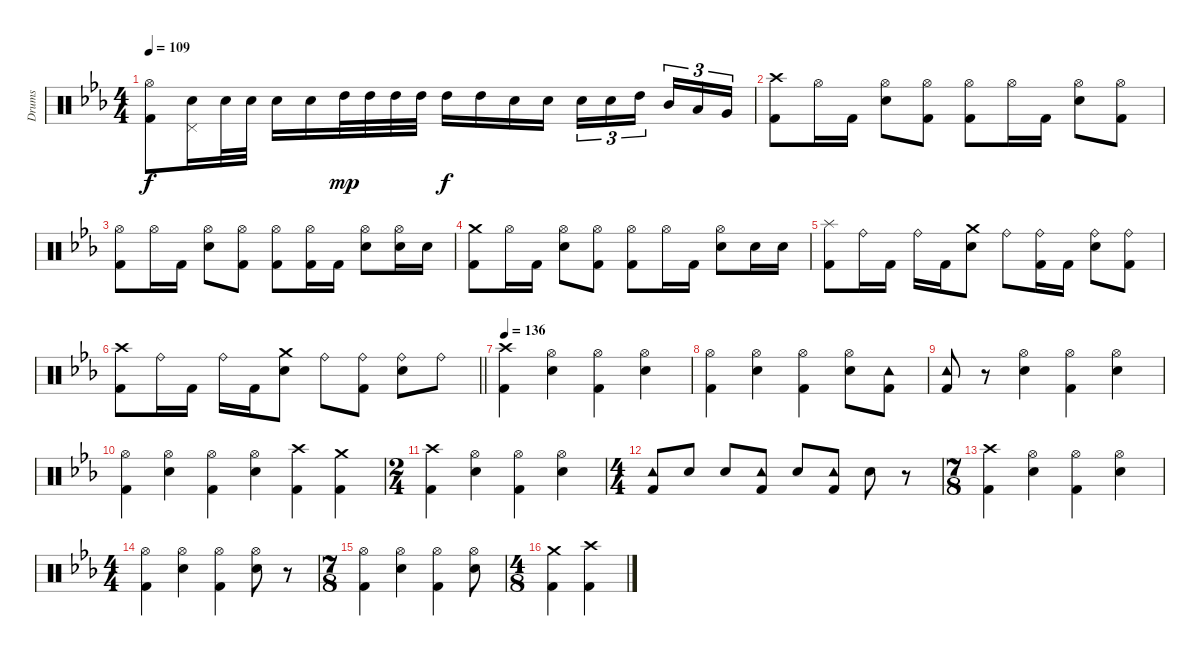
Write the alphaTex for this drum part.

\track ("Drums" "Drums") {instrument percussion}
\staff {score}
\articulation defaults
\ts (4 4)
\tempo 109
\clef neutral
\ks cminor
("Hi-Hat (open)" "Kick (hit) 2").8{dy f} ("Electric Snare (hit)" "Pedal Hi-Hat (hit)").16 "Electric Snare (hit)".32 "Electric Snare (hit)".32 "Electric Snare (hit)".16 "Electric Snare (hit)".16 "High Tom (hit)".32{dy mp} "High Tom (hit)".32 "High Tom (hit)".32 "High Tom (hit)".32 "High Tom (hit)".16{dy f} "High Tom (hit)".16 "Electric Snare (hit)".16 "Electric Snare (hit)".16 "Electric Snare (hit)".16{tu (3 2)} "Electric Snare (hit)".16{tu (3 2)} "High Tom (hit)".16{tu (3 2) beam splitsecondary} "Mid Tom (hit)".16{tu (3 2)} "Low Tom (hit)".16{tu (3 2)} "Very Low Tom (hit)".16{tu (3 2)} |
("Kick (hit) 2" "Crash high (hit)").8 "Hi-Hat (open)".16 "Kick (hit) 2".16 ("Electric Snare (hit)" "Hi-Hat (open)").8 ("Kick (hit) 2" "Hi-Hat (open)").8 ("Kick (hit) 2" "Hi-Hat (open)").8 "Hi-Hat (open)".16 "Kick (hit) 2".16 ("Electric Snare (hit)" "Hi-Hat (open)").8 ("Hi-Hat (open)" "Kick (hit) 2").8 |
("Hi-Hat (open)" "Kick (hit) 2").8 "Hi-Hat (open)".16 "Kick (hit) 2".16 ("Electric Snare (hit)" "Hi-Hat (open)").8 ("Kick (hit) 2" "Hi-Hat (open)").8 ("Hi-Hat (open)" "Kick (hit) 2").8 ("Hi-Hat (open)" "Kick (hit) 2").16 "Kick (hit) 2".16 ("Electric Snare (hit)" "Hi-Hat (open)").8 ("Electric Snare (hit)" "Hi-Hat (open)").16 "Electric Snare (hit)".16 |
("Kick (hit) 2" "Crash medium (hit)").8 "Hi-Hat (open)".16 "Kick (hit) 2".16 ("Electric Snare (hit)" "Hi-Hat (open)").8 ("Kick (hit) 2" "Hi-Hat (open)").8 ("Kick (hit) 2" "Hi-Hat (open)").8 "Hi-Hat (open)".16 "Kick (hit) 2".16 ("Electric Snare (hit)" "Hi-Hat (open)").8 "Electric Snare (hit)".16 "Electric Snare (hit)".16 |
("Splash (hit)" "Kick (hit) 2").8 "Ride (bell)".16 "Kick (hit) 2".16 "Ride (bell)".16 "Kick (hit) 2".16 ("Electric Snare (hit)" "Crash medium (hit)").8 "Ride (bell)".8 ("Ride (bell)" "Kick (hit) 2").16 "Kick (hit) 2".16 ("Ride (bell)" "Electric Snare (hit)").8 ("Ride (bell)" "Kick (hit) 2").8 |
\barLineRight lightlight
("Kick (hit) 2" "Crash high (hit)").8 "Ride (bell)".16 "Kick (hit) 2".16 "Ride (bell)".16 "Kick (hit) 2".16 ("Electric Snare (hit)" "Crash medium (hit)").8 "Ride (bell)".8 ("Ride (bell)" "Kick (hit) 2").8 ("Ride (bell)" "Electric Snare (hit)").8 "Ride (bell)".8 |
\tempo 136
("Kick (hit) 2" "Crash high (hit)").4 ("Electric Snare (hit)" "Hi-Hat (open)").4 ("Kick (hit) 2" "Hi-Hat (open)").4 ("Electric Snare (hit)" "Hi-Hat (open)").4 |
("Kick (hit) 2" "Hi-Hat (open)").4 ("Electric Snare (hit)" "Hi-Hat (open)").4 ("Kick (hit) 2" "Hi-Hat (open)").4 ("Electric Snare (hit)" "Hi-Hat (open)").8 ("Kick (hit) 2" "Tambourine (hit)").8 |
("Kick (hit) 2" "Tambourine (hit)").8 r.8 ("Hi-Hat (open)" "Electric Snare (hit)").4 ("Kick (hit) 2" "Hi-Hat (open)").4 ("Electric Snare (hit)" "Hi-Hat (open)").4 |
("Kick (hit) 2" "Hi-Hat (open)").4 ("Electric Snare (hit)" "Hi-Hat (open)").4 ("Kick (hit) 2" "Hi-Hat (open)").4 ("Electric Snare (hit)" "Hi-Hat (open)").4 ("Kick (hit) 2" "Crash high (hit)").4 ("Crash medium (hit)" "Kick (hit) 2").4 |
\ts (2 4)
("Crash high (hit)" "Kick (hit) 2").4 ("Electric Snare (hit)" "Hi-Hat (open)").4 ("Kick (hit) 2" "Hi-Hat (open)").4 ("Electric Snare (hit)" "Hi-Hat (open)").4 |
\ts (4 4)
("Kick (hit) 2" "Tambourine (hit)").8 "Electric Snare (hit)".8 "Electric Snare (hit)".8 ("Kick (hit) 2" "Tambourine (hit)").8 "Electric Snare (hit)".8 ("Kick (hit) 2" "Tambourine (hit)").8 "Electric Snare (hit)".8 r.8 |
\ts (7 8)
("Crash high (hit)" "Kick (hit) 2").4 ("Electric Snare (hit)" "Hi-Hat (open)").4 ("Kick (hit) 2" "Hi-Hat (open)").4 ("Electric Snare (hit)" "Hi-Hat (open)").4 |
\ts (4 4)
("Kick (hit) 2" "Hi-Hat (open)").4 ("Electric Snare (hit)" "Hi-Hat (open)").4 ("Kick (hit) 2" "Hi-Hat (open)").4 ("Hi-Hat (open)" "Electric Snare (hit)").8 r.8 |
\ts (7 8)
("Kick (hit) 2" "Hi-Hat (open)").4 ("Electric Snare (hit)" "Hi-Hat (open)").4 ("Kick (hit) 2" "Hi-Hat (open)").4 ("Electric Snare (hit)" "Hi-Hat (open)").8 |
\ts (4 8)
("Kick (hit) 2" "Crash medium (hit)").4 ("Kick (hit) 2" "Crash high (hit)").4
